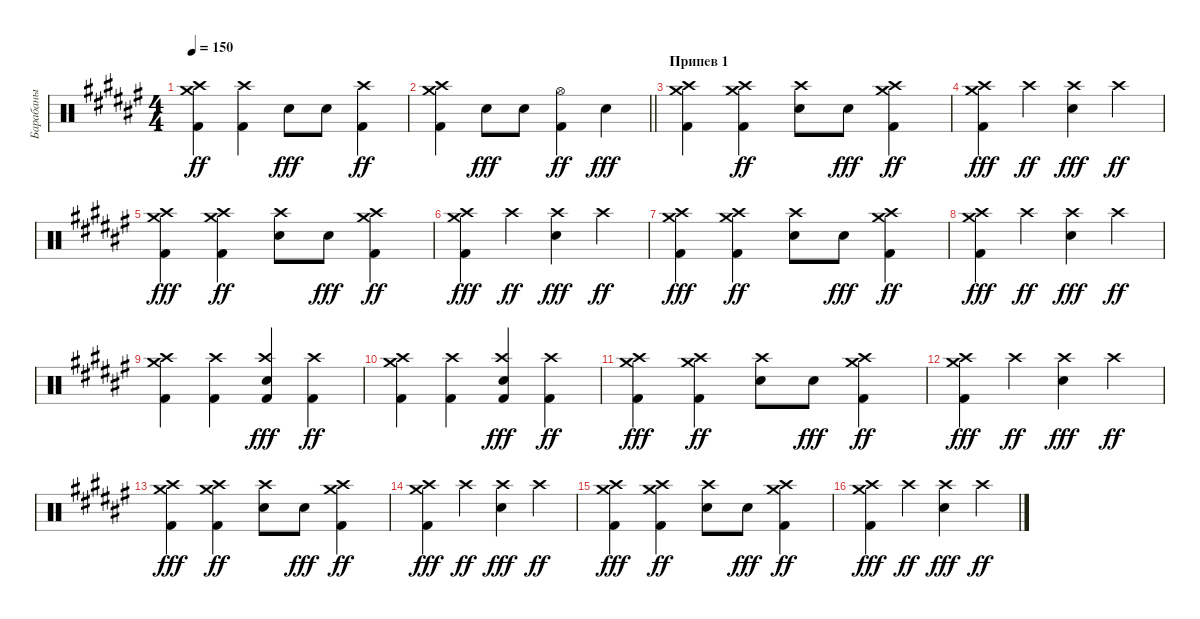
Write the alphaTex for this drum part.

\track ("Барабаны" "Барабаны") {instrument percussion}
\staff {score}
\articulation defaults
\ts (4 4)
\tempo 150
\clef neutral
\ks d#minor
("Kick (hit) 2" "Crash high (hit)" "Crash medium (hit)").4{dy ff} ("Kick (hit) 2" "Crash high (hit)").4 "Electric Snare (hit)".8{dy fff} "Electric Snare (hit)".8 ("Kick (hit) 2" "Crash high (hit)").4{dy ff} |
\barLineRight lightlight
("Kick (hit) 2" "Crash high (hit)" "Crash medium (hit)").4 "Electric Snare (hit)".8{dy fff} "Electric Snare (hit)".8 ("Kick (hit) 2" "Hi-Hat (open)").4{dy ff} "Electric Snare (hit)".4{dy fff} |
\section ("" "Припев 1")
("Kick (hit) 2" "Crash high (hit)" "Crash medium (hit)").4 ("Kick (hit) 2" "Crash high (hit)" "Crash medium (hit)").4{dy ff} ("Electric Snare (hit)" "Crash high (hit)").8 "Electric Snare (hit)".8{dy fff} ("Kick (hit) 2" "Crash high (hit)" "Crash medium (hit)").4{dy ff} |
("Kick (hit) 2" "Crash high (hit)" "Crash medium (hit)").4{dy fff} "Crash high (hit)".4{dy ff} ("Crash high (hit)" "Electric Snare (hit)").4{dy fff} "Crash high (hit)".4{dy ff} |
("Kick (hit) 2" "Crash high (hit)" "Crash medium (hit)").4{dy fff} ("Kick (hit) 2" "Crash high (hit)" "Crash medium (hit)").4{dy ff} ("Electric Snare (hit)" "Crash high (hit)").8 "Electric Snare (hit)".8{dy fff} ("Kick (hit) 2" "Crash high (hit)" "Crash medium (hit)").4{dy ff} |
("Kick (hit) 2" "Crash high (hit)" "Crash medium (hit)").4{dy fff} "Crash high (hit)".4{dy ff} ("Crash high (hit)" "Electric Snare (hit)").4{dy fff} "Crash high (hit)".4{dy ff} |
("Kick (hit) 2" "Crash high (hit)" "Crash medium (hit)").4{dy fff} ("Kick (hit) 2" "Crash high (hit)" "Crash medium (hit)").4{dy ff} ("Electric Snare (hit)" "Crash high (hit)").8 "Electric Snare (hit)".8{dy fff} ("Kick (hit) 2" "Crash high (hit)" "Crash medium (hit)").4{dy ff} |
("Kick (hit) 2" "Crash high (hit)" "Crash medium (hit)").4{dy fff} "Crash high (hit)".4{dy ff} ("Crash high (hit)" "Electric Snare (hit)").4{dy fff} "Crash high (hit)".4{dy ff} |
("Kick (hit) 2" "Crash high (hit)" "Crash medium (hit)").4 ("Kick (hit) 2" "Crash high (hit)").4 ("Kick (hit) 2" "Crash high (hit)" "Electric Snare (hit)").4{dy fff} ("Kick (hit) 2" "Crash high (hit)").4{dy ff} |
("Kick (hit) 2" "Crash high (hit)" "Crash medium (hit)").4 ("Kick (hit) 2" "Crash high (hit)").4 ("Kick (hit) 2" "Crash high (hit)" "Electric Snare (hit)").4{dy fff} ("Kick (hit) 2" "Crash high (hit)").4{dy ff} |
("Kick (hit) 2" "Crash high (hit)" "Crash medium (hit)").4{dy fff} ("Kick (hit) 2" "Crash high (hit)" "Crash medium (hit)").4{dy ff} ("Electric Snare (hit)" "Crash high (hit)").8 "Electric Snare (hit)".8{dy fff} ("Kick (hit) 2" "Crash high (hit)" "Crash medium (hit)").4{dy ff} |
("Kick (hit) 2" "Crash high (hit)" "Crash medium (hit)").4{dy fff} "Crash high (hit)".4{dy ff} ("Crash high (hit)" "Electric Snare (hit)").4{dy fff} "Crash high (hit)".4{dy ff} |
("Kick (hit) 2" "Crash high (hit)" "Crash medium (hit)").4{dy fff} ("Kick (hit) 2" "Crash high (hit)" "Crash medium (hit)").4{dy ff} ("Electric Snare (hit)" "Crash high (hit)").8 "Electric Snare (hit)".8{dy fff} ("Kick (hit) 2" "Crash high (hit)" "Crash medium (hit)").4{dy ff} |
("Kick (hit) 2" "Crash high (hit)" "Crash medium (hit)").4{dy fff} "Crash high (hit)".4{dy ff} ("Crash high (hit)" "Electric Snare (hit)").4{dy fff} "Crash high (hit)".4{dy ff} |
("Kick (hit) 2" "Crash high (hit)" "Crash medium (hit)").4{dy fff} ("Kick (hit) 2" "Crash high (hit)" "Crash medium (hit)").4{dy ff} ("Electric Snare (hit)" "Crash high (hit)").8 "Electric Snare (hit)".8{dy fff} ("Kick (hit) 2" "Crash high (hit)" "Crash medium (hit)").4{dy ff} |
("Kick (hit) 2" "Crash high (hit)" "Crash medium (hit)").4{dy fff} "Crash high (hit)".4{dy ff} ("Crash high (hit)" "Electric Snare (hit)").4{dy fff} "Crash high (hit)".4{dy ff}
